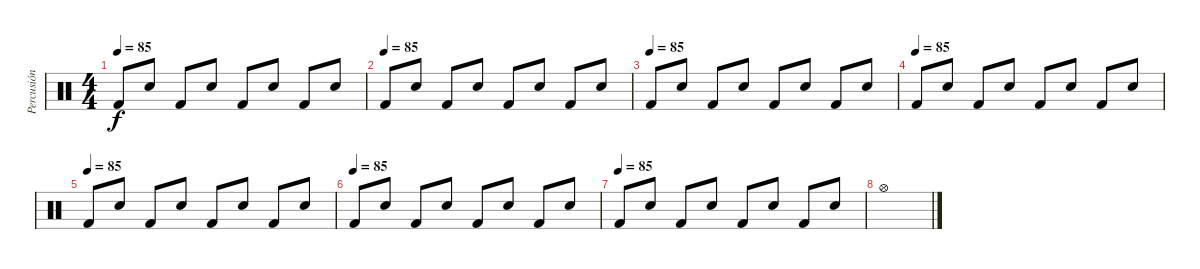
\track ("Percusión" "Percusión") {instrument percussion}
\staff {score}
\articulation defaults
\ts (4 4)
\tempo 85
\clef neutral
\ks c "Kick (hit) 2".8{dy f} "Electric Snare (hit)".8 "Kick (hit) 2".8 "Electric Snare (hit)".8 "Kick (hit) 2".8 "Electric Snare (hit)".8 "Kick (hit) 2".8 "Electric Snare (hit)".8
|
\tempo (85)
"Kick (hit) 2".8 "Electric Snare (hit)".8 "Kick (hit) 2".8 "Electric Snare (hit)".8 "Kick (hit) 2".8 "Electric Snare (hit)".8 "Kick (hit) 2".8 "Electric Snare (hit)".8 |
\tempo (85)
"Kick (hit) 2".8 "Electric Snare (hit)".8 "Kick (hit) 2".8 "Electric Snare (hit)".8 "Kick (hit) 2".8 "Electric Snare (hit)".8 "Kick (hit) 2".8 "Electric Snare (hit)".8 |
\tempo (85)
"Kick (hit) 2".8 "Electric Snare (hit)".8 "Kick (hit) 2".8 "Electric Snare (hit)".8 "Kick (hit) 2".8 "Electric Snare (hit)".8 "Kick (hit) 2".8 "Electric Snare (hit)".8 |
\tempo (85)
"Kick (hit) 2".8 "Electric Snare (hit)".8 "Kick (hit) 2".8 "Electric Snare (hit)".8 "Kick (hit) 2".8 "Electric Snare (hit)".8 "Kick (hit) 2".8 "Electric Snare (hit)".8 |
\tempo (85)
"Kick (hit) 2".8 "Electric Snare (hit)".8 "Kick (hit) 2".8 "Electric Snare (hit)".8 "Kick (hit) 2".8 "Electric Snare (hit)".8 "Kick (hit) 2".8 "Electric Snare (hit)".8 |
\tempo (85)
"Kick (hit) 2".8 "Electric Snare (hit)".8 "Kick (hit) 2".8 "Electric Snare (hit)".8 "Kick (hit) 2".8 "Electric Snare (hit)".8 "Kick (hit) 2".8 "Electric Snare (hit)".8 |
"Hi-Hat (open)".1
